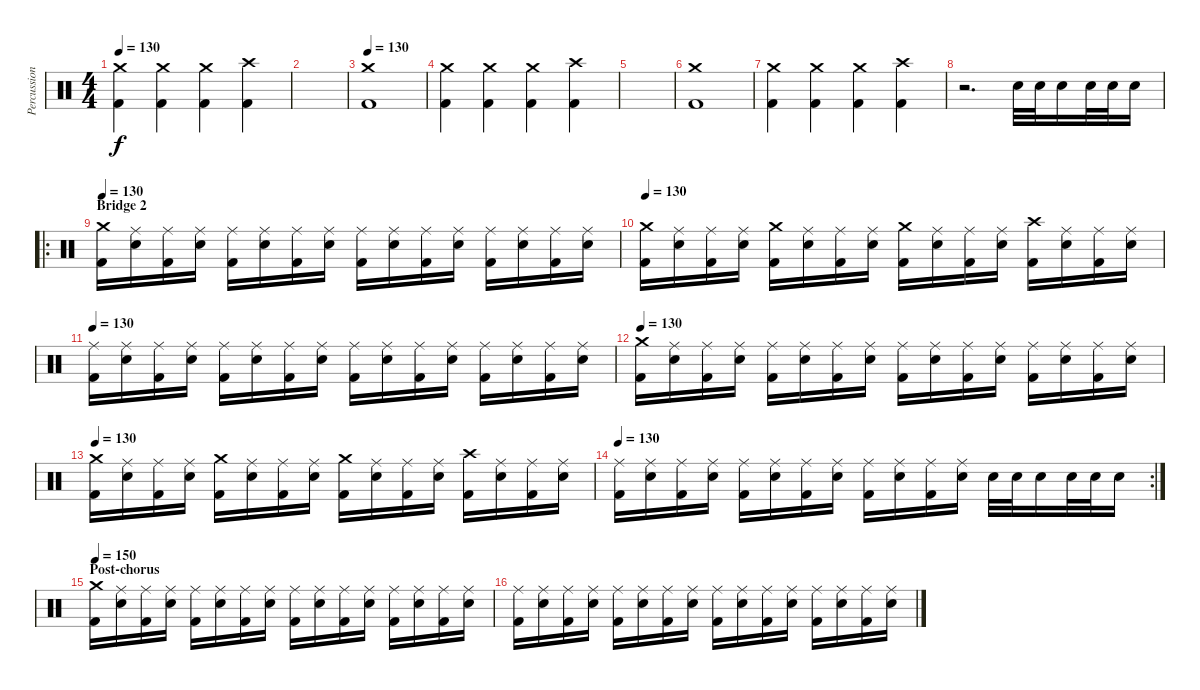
\track ("Percussion" "Percussion") {instrument percussion}
\staff {score}
\articulation defaults
\ts (4 4)
\tempo 130
\clef neutral
\ks c
("Crash medium (hit)" "Kick (hit) 2").4{dy f} ("Crash medium (hit)" "Kick (hit) 2").4 ("Crash medium (hit)" "Kick (hit) 2").4 ("Crash high (hit)" "Kick (hit) 2").4 |
|
\tempo 130
("Crash medium (hit)" "Kick (hit) 2").1 |
("Crash medium (hit)" "Kick (hit) 2").4 ("Crash medium (hit)" "Kick (hit) 2").4 ("Crash medium (hit)" "Kick (hit) 2").4 ("Crash high (hit)" "Kick (hit) 2").4 |
|
("Crash medium (hit)" "Kick (hit) 2").1 |
("Crash medium (hit)" "Kick (hit) 2").4 ("Crash medium (hit)" "Kick (hit) 2").4 ("Crash medium (hit)" "Kick (hit) 2").4 ("Crash high (hit)" "Kick (hit) 2").4 |
r.2{d} "Electric Snare (hit)".32 "Electric Snare (hit)".32 "Electric Snare (hit)".16 "Electric Snare (hit)".32 "Electric Snare (hit)".32 "Electric Snare (hit)".16 |
\ro
\section ("" "Bridge 2")
\tempo 130
("Crash medium (hit)" "Kick (hit) 2").16 ("Ride (middle)" "Electric Snare (hit)").16 ("Ride (middle)" "Kick (hit) 2").16 ("Ride (middle)" "Electric Snare (hit)").16 ("Ride (middle)" "Kick (hit) 2").16 ("Ride (middle)" "Electric Snare (hit)").16 ("Ride (middle)" "Kick (hit) 2").16 ("Ride (middle)" "Electric Snare (hit)").16 ("Ride (middle)" "Kick (hit) 2").16 ("Ride (middle)" "Electric Snare (hit)").16 ("Ride (middle)" "Kick (hit) 2").16 ("Ride (middle)" "Electric Snare (hit)").16 ("Ride (middle)" "Kick (hit) 2").16 ("Ride (middle)" "Electric Snare (hit)").16 ("Ride (middle)" "Kick (hit) 2").16 ("Ride (middle)" "Electric Snare (hit)").16 |
\tempo 130
("Crash medium (hit)" "Kick (hit) 2").16 ("Ride (middle)" "Electric Snare (hit)").16 ("Ride (middle)" "Kick (hit) 2").16 ("Ride (middle)" "Electric Snare (hit)").16 ("Crash medium (hit)" "Kick (hit) 2").16 ("Ride (middle)" "Electric Snare (hit)").16 ("Ride (middle)" "Kick (hit) 2").16 ("Ride (middle)" "Electric Snare (hit)").16 ("Crash medium (hit)" "Kick (hit) 2").16 ("Ride (middle)" "Electric Snare (hit)").16 ("Ride (middle)" "Kick (hit) 2").16 ("Ride (middle)" "Electric Snare (hit)").16 ("Crash high (hit)" "Kick (hit) 2").16 ("Ride (middle)" "Electric Snare (hit)").16 ("Ride (middle)" "Kick (hit) 2").16 ("Ride (middle)" "Electric Snare (hit)").16 |
\tempo 130
("Ride (middle)" "Kick (hit) 2").16 ("Ride (middle)" "Electric Snare (hit)").16 ("Ride (middle)" "Kick (hit) 2").16 ("Ride (middle)" "Electric Snare (hit)").16 ("Ride (middle)" "Kick (hit) 2").16 ("Ride (middle)" "Electric Snare (hit)").16 ("Ride (middle)" "Kick (hit) 2").16 ("Ride (middle)" "Electric Snare (hit)").16 ("Ride (middle)" "Kick (hit) 2").16 ("Ride (middle)" "Electric Snare (hit)").16 ("Ride (middle)" "Kick (hit) 2").16 ("Ride (middle)" "Electric Snare (hit)").16 ("Ride (middle)" "Kick (hit) 2").16 ("Ride (middle)" "Electric Snare (hit)").16 ("Ride (middle)" "Kick (hit) 2").16 ("Ride (middle)" "Electric Snare (hit)").16 |
\tempo 130
("Crash medium (hit)" "Kick (hit) 2").16 ("Ride (middle)" "Electric Snare (hit)").16 ("Ride (middle)" "Kick (hit) 2").16 ("Ride (middle)" "Electric Snare (hit)").16 ("Ride (middle)" "Kick (hit) 2").16 ("Ride (middle)" "Electric Snare (hit)").16 ("Ride (middle)" "Kick (hit) 2").16 ("Ride (middle)" "Electric Snare (hit)").16 ("Ride (middle)" "Kick (hit) 2").16 ("Ride (middle)" "Electric Snare (hit)").16 ("Ride (middle)" "Kick (hit) 2").16 ("Ride (middle)" "Electric Snare (hit)").16 ("Ride (middle)" "Kick (hit) 2").16 ("Ride (middle)" "Electric Snare (hit)").16 ("Ride (middle)" "Kick (hit) 2").16 ("Ride (middle)" "Electric Snare (hit)").16 |
\tempo 130
("Crash medium (hit)" "Kick (hit) 2").16 ("Ride (middle)" "Electric Snare (hit)").16 ("Ride (middle)" "Kick (hit) 2").16 ("Ride (middle)" "Electric Snare (hit)").16 ("Crash medium (hit)" "Kick (hit) 2").16 ("Ride (middle)" "Electric Snare (hit)").16 ("Ride (middle)" "Kick (hit) 2").16 ("Ride (middle)" "Electric Snare (hit)").16 ("Crash medium (hit)" "Kick (hit) 2").16 ("Ride (middle)" "Electric Snare (hit)").16 ("Ride (middle)" "Kick (hit) 2").16 ("Ride (middle)" "Electric Snare (hit)").16 ("Crash high (hit)" "Kick (hit) 2").16 ("Ride (middle)" "Electric Snare (hit)").16 ("Ride (middle)" "Kick (hit) 2").16 ("Ride (middle)" "Electric Snare (hit)").16 |
\rc 2
\tempo 130
("Ride (middle)" "Kick (hit) 2").16 ("Ride (middle)" "Electric Snare (hit)").16 ("Ride (middle)" "Kick (hit) 2").16 ("Ride (middle)" "Electric Snare (hit)").16 ("Ride (middle)" "Kick (hit) 2").16 ("Ride (middle)" "Electric Snare (hit)").16 ("Ride (middle)" "Kick (hit) 2").16 ("Ride (middle)" "Electric Snare (hit)").16 ("Ride (middle)" "Kick (hit) 2").16 ("Ride (middle)" "Electric Snare (hit)").16 ("Ride (middle)" "Kick (hit) 2").16 ("Ride (middle)" "Electric Snare (hit)").16 "Electric Snare (hit)".32 "Electric Snare (hit)".32 "Electric Snare (hit)".16 "Electric Snare (hit)".32 "Electric Snare (hit)".32 "Electric Snare (hit)".16 |
\section ("" "Post-chorus")
\tempo 150
("Crash medium (hit)" "Kick (hit) 2").16 ("Ride (middle)" "Electric Snare (hit)").16 ("Ride (middle)" "Kick (hit) 2").16 ("Ride (middle)" "Electric Snare (hit)").16 ("Ride (middle)" "Kick (hit) 2").16 ("Ride (middle)" "Electric Snare (hit)").16 ("Ride (middle)" "Kick (hit) 2").16 ("Ride (middle)" "Electric Snare (hit)").16 ("Ride (middle)" "Kick (hit) 2").16 ("Ride (middle)" "Electric Snare (hit)").16 ("Ride (middle)" "Kick (hit) 2").16 ("Ride (middle)" "Electric Snare (hit)").16 ("Ride (middle)" "Kick (hit) 2").16 ("Ride (middle)" "Electric Snare (hit)").16 ("Ride (middle)" "Kick (hit) 2").16 ("Ride (middle)" "Electric Snare (hit)").16 |
("Ride (middle)" "Kick (hit) 2").16 ("Ride (middle)" "Electric Snare (hit)").16 ("Ride (middle)" "Kick (hit) 2").16 ("Ride (middle)" "Electric Snare (hit)").16 ("Ride (middle)" "Kick (hit) 2").16 ("Ride (middle)" "Electric Snare (hit)").16 ("Ride (middle)" "Kick (hit) 2").16 ("Ride (middle)" "Electric Snare (hit)").16 ("Ride (middle)" "Kick (hit) 2").16 ("Ride (middle)" "Electric Snare (hit)").16 ("Ride (middle)" "Kick (hit) 2").16 ("Ride (middle)" "Electric Snare (hit)").16 ("Ride (middle)" "Kick (hit) 2").16 ("Ride (middle)" "Electric Snare (hit)").16 ("Ride (middle)" "Kick (hit) 2").16 ("Ride (middle)" "Electric Snare (hit)").16
